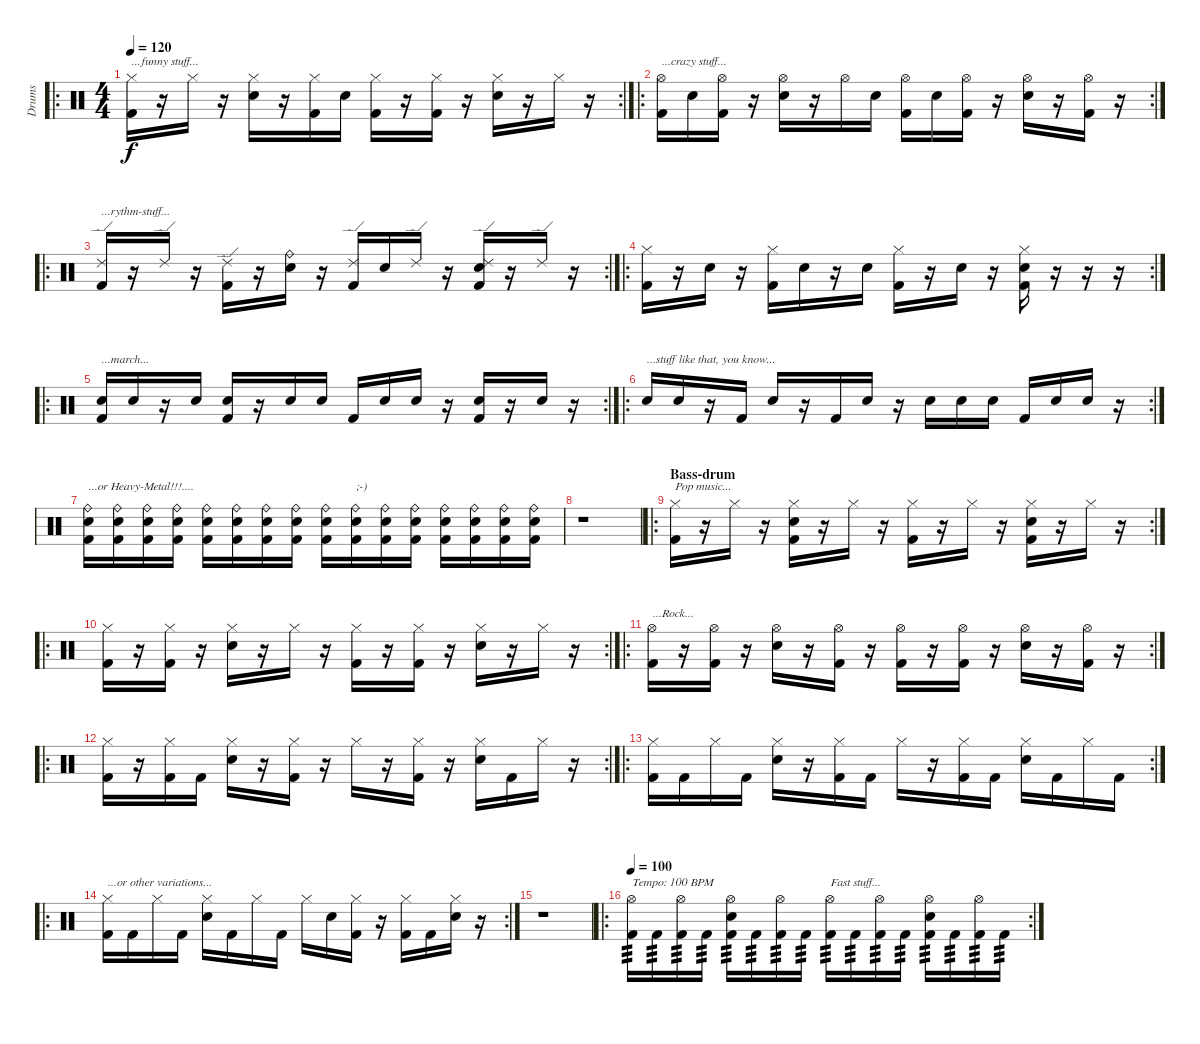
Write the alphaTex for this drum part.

\track ("Drums" "Drums") {instrument percussion}
\staff {score}
\articulation defaults
\ro
\rc 2
\ts (4 4)
\tempo 120
\clef neutral
\ks c
("Hi-Hat (closed)" "Kick (hit) 2").16{txt "...funny stuff..." lyrics (0 "") lyrics (1 "") lyrics (2 "") lyrics (3 "") lyrics (4 "") dy f} r.16 "Hi-Hat (closed)".16{lyrics (0 "") lyrics (1 "") lyrics (2 "") lyrics (3 "") lyrics (4 "")} r.16 ("Hi-Hat (closed)" "Electric Snare (hit)").16{lyrics (0 "") lyrics (1 "") lyrics (2 "") lyrics (3 "") lyrics (4 "")} r.16 ("Hi-Hat (closed)" "Kick (hit) 2").16{lyrics (0 "") lyrics (1 "") lyrics (2 "") lyrics (3 "") lyrics (4 "")} "Electric Snare (hit)".16{lyrics (0 "") lyrics (1 "") lyrics (2 "") lyrics (3 "") lyrics (4 "")} ("Hi-Hat (closed)" "Kick (hit) 2").16{lyrics (0 "") lyrics (1 "") lyrics (2 "") lyrics (3 "") lyrics (4 "")} r.16 ("Hi-Hat (closed)" "Kick (hit) 2").16{lyrics (0 "") lyrics (1 "") lyrics (2 "") lyrics (3 "") lyrics (4 "")} r.16 ("Hi-Hat (closed)" "Electric Snare (hit)").16{lyrics (0 "") lyrics (1 "") lyrics (2 "") lyrics (3 "") lyrics (4 "")} r.16 "Hi-Hat (closed)".16{lyrics (0 "") lyrics (1 "") lyrics (2 "") lyrics (3 "") lyrics (4 "")} r.16 |
\ro
\rc 2
("Hi-Hat (open)" "Kick (hit) 2").16{txt "...crazy stuff..." lyrics (0 "") lyrics (1 "") lyrics (2 "") lyrics (3 "") lyrics (4 "")} "Electric Snare (hit)".16{lyrics (0 "") lyrics (1 "") lyrics (2 "") lyrics (3 "") lyrics (4 "")} ("Hi-Hat (open)" "Kick (hit) 2").16{lyrics (0 "") lyrics (1 "") lyrics (2 "") lyrics (3 "") lyrics (4 "")} r.16 ("Hi-Hat (open)" "Electric Snare (hit)").16{lyrics (0 "") lyrics (1 "") lyrics (2 "") lyrics (3 "") lyrics (4 "")} r.16 "Hi-Hat (open)".16{lyrics (0 "") lyrics (1 "") lyrics (2 "") lyrics (3 "") lyrics (4 "")} "Electric Snare (hit)".16{lyrics (0 "") lyrics (1 "") lyrics (2 "") lyrics (3 "") lyrics (4 "")} ("Hi-Hat (open)" "Kick (hit) 2").16{lyrics (0 "") lyrics (1 "") lyrics (2 "") lyrics (3 "") lyrics (4 "")} "Electric Snare (hit)".16{lyrics (0 "") lyrics (1 "") lyrics (2 "") lyrics (3 "") lyrics (4 "")} ("Hi-Hat (open)" "Kick (hit) 2").16{lyrics (0 "") lyrics (1 "") lyrics (2 "") lyrics (3 "") lyrics (4 "")} r.16 ("Hi-Hat (open)" "Electric Snare (hit)").16{lyrics (0 "") lyrics (1 "") lyrics (2 "") lyrics (3 "") lyrics (4 "")} r.16 ("Hi-Hat (open)" "Kick (hit) 2").16{lyrics (0 "") lyrics (1 "") lyrics (2 "") lyrics (3 "") lyrics (4 "")} r.16 |
\ro
\rc 2
("Ride (edge) 2" "Kick (hit) 2").16{txt "...rythm-stuff..." lyrics (0 "") lyrics (1 "") lyrics (2 "") lyrics (3 "") lyrics (4 "")} r.16 "Ride (edge) 2".16{lyrics (0 "") lyrics (1 "") lyrics (2 "") lyrics (3 "") lyrics (4 "")} r.16 ("Ride (edge) 2" "Kick (hit) 2").16{lyrics (0 "") lyrics (1 "") lyrics (2 "") lyrics (3 "") lyrics (4 "")} r.16 ("Ride (bell)" "Electric Snare (hit)").16{lyrics (0 "") lyrics (1 "") lyrics (2 "") lyrics (3 "") lyrics (4 "")} r.16 ("Ride (edge) 2" "Kick (hit) 2").16{lyrics (0 "") lyrics (1 "") lyrics (2 "") lyrics (3 "") lyrics (4 "")} "Electric Snare (hit)".16{lyrics (0 "") lyrics (1 "") lyrics (2 "") lyrics (3 "") lyrics (4 "")} "Ride (edge) 2".16{lyrics (0 "") lyrics (1 "") lyrics (2 "") lyrics (3 "") lyrics (4 "")} r.16 ("Ride (edge) 2" "Electric Snare (hit)" "Kick (hit) 2").16{lyrics (0 "") lyrics (1 "") lyrics (2 "") lyrics (3 "") lyrics (4 "")} r.16 "Ride (edge) 2".16{lyrics (0 "") lyrics (1 "") lyrics (2 "") lyrics (3 "") lyrics (4 "")} r.16 |
\ro
\rc 2
("Hi-Hat (closed)" "Kick (hit) 2").16{lyrics (0 "") lyrics (1 "") lyrics (2 "") lyrics (3 "") lyrics (4 "")} r.16 "Electric Snare (hit)".16{lyrics (0 "") lyrics (1 "") lyrics (2 "") lyrics (3 "") lyrics (4 "")} r.16 ("Hi-Hat (closed)" "Kick (hit) 2").16{lyrics (0 "") lyrics (1 "") lyrics (2 "") lyrics (3 "") lyrics (4 "")} "Electric Snare (hit)".16{lyrics (0 "") lyrics (1 "") lyrics (2 "") lyrics (3 "") lyrics (4 "")} r.16 "Electric Snare (hit)".16{lyrics (0 "") lyrics (1 "") lyrics (2 "") lyrics (3 "") lyrics (4 "")} ("Hi-Hat (closed)" "Kick (hit) 2").16{lyrics (0 "") lyrics (1 "") lyrics (2 "") lyrics (3 "") lyrics (4 "")} r.16 "Electric Snare (hit)".16{lyrics (0 "") lyrics (1 "") lyrics (2 "") lyrics (3 "") lyrics (4 "")} r.16 ("Hi-Hat (closed)" "Electric Snare (hit)" "Kick (hit) 2").16{lyrics (0 "") lyrics (1 "") lyrics (2 "") lyrics (3 "") lyrics (4 "")} r.16 r.16 r.16 |
\ro
\rc 2
("Electric Snare (hit)" "Kick (hit) 2").16{txt "...march..." lyrics (0 "") lyrics (1 "") lyrics (2 "") lyrics (3 "") lyrics (4 "")} "Electric Snare (hit)".16{lyrics (0 "") lyrics (1 "") lyrics (2 "") lyrics (3 "") lyrics (4 "")} r.16 "Electric Snare (hit)".16{lyrics (0 "") lyrics (1 "") lyrics (2 "") lyrics (3 "") lyrics (4 "")} ("Electric Snare (hit)" "Kick (hit) 2").16{lyrics (0 "") lyrics (1 "") lyrics (2 "") lyrics (3 "") lyrics (4 "")} r.16 "Electric Snare (hit)".16{lyrics (0 "") lyrics (1 "") lyrics (2 "") lyrics (3 "") lyrics (4 "")} "Electric Snare (hit)".16{lyrics (0 "") lyrics (1 "") lyrics (2 "") lyrics (3 "") lyrics (4 "")} "Kick (hit) 2".16{lyrics (0 "") lyrics (1 "") lyrics (2 "") lyrics (3 "") lyrics (4 "")} "Electric Snare (hit)".16{lyrics (0 "") lyrics (1 "") lyrics (2 "") lyrics (3 "") lyrics (4 "")} "Electric Snare (hit)".16{lyrics (0 "") lyrics (1 "") lyrics (2 "") lyrics (3 "") lyrics (4 "")} r.16 ("Electric Snare (hit)" "Kick (hit) 2").16{lyrics (0 "") lyrics (1 "") lyrics (2 "") lyrics (3 "") lyrics (4 "")} r.16 "Electric Snare (hit)".16{lyrics (0 "") lyrics (1 "") lyrics (2 "") lyrics (3 "") lyrics (4 "")} r.16 |
\ro
\rc 2 "Electric Snare (hit)".16{txt "...stuff like that, you know..." lyrics (0 "") lyrics (1 "") lyrics (2 "") lyrics (3 "") lyrics (4 "")} "Electric Snare (hit)".16{lyrics (0 "") lyrics (1 "") lyrics (2 "") lyrics (3 "") lyrics (4 "")}
r.16 "Kick (hit) 2".16{lyrics (0 "") lyrics (1 "") lyrics (2 "") lyrics (3 "") lyrics (4 "")} "Electric Snare (hit)".16{lyrics (0 "") lyrics (1 "") lyrics (2 "") lyrics (3 "") lyrics (4 "")} r.16 "Kick (hit) 2".16{lyrics (0 "") lyrics (1 "") lyrics (2 "") lyrics (3 "") lyrics (4 "")} "Electric Snare (hit)".16{lyrics (0 "") lyrics (1 "") lyrics (2 "") lyrics (3 "") lyrics (4 "")} r.16 "Electric Snare (hit)".16{lyrics (0 "") lyrics (1 "") lyrics (2 "") lyrics (3 "") lyrics (4 "")} "Electric Snare (hit)".16{lyrics (0 "") lyrics (1 "") lyrics (2 "") lyrics (3 "") lyrics (4 "")} "Electric Snare (hit)".16{lyrics (0 "") lyrics (1 "") lyrics (2 "") lyrics (3 "") lyrics (4 "")} "Kick (hit) 2".16{lyrics (0 "") lyrics (1 "") lyrics (2 "") lyrics (3 "") lyrics (4 "")} "Electric Snare (hit)".16{lyrics (0 "") lyrics (1 "") lyrics (2 "") lyrics (3 "") lyrics (4 "")} "Electric Snare (hit)".16{lyrics (0 "") lyrics (1 "") lyrics (2 "") lyrics (3 "") lyrics (4 "")} r.16 |
("Ride (bell)" "Electric Snare (hit)" "Kick (hit) 2").16{txt "...or Heavy-Metal!!!...." lyrics (0 "") lyrics (1 "") lyrics (2 "") lyrics (3 "") lyrics (4 "")} ("Ride (bell)" "Electric Snare (hit)" "Kick (hit) 2").16{lyrics (0 "") lyrics (1 "") lyrics (2 "") lyrics (3 "") lyrics (4 "")} ("Ride (bell)" "Electric Snare (hit)" "Kick (hit) 2").16{lyrics (0 "") lyrics (1 "") lyrics (2 "") lyrics (3 "") lyrics (4 "")} ("Ride (bell)" "Electric Snare (hit)" "Kick (hit) 2").16{lyrics (0 "") lyrics (1 "") lyrics (2 "") lyrics (3 "") lyrics (4 "")} ("Ride (bell)" "Electric Snare (hit)" "Kick (hit) 2").16{lyrics (0 "") lyrics (1 "") lyrics (2 "") lyrics (3 "") lyrics (4 "")} ("Ride (bell)" "Electric Snare (hit)" "Kick (hit) 2").16{lyrics (0 "") lyrics (1 "") lyrics (2 "") lyrics (3 "") lyrics (4 "")} ("Ride (bell)" "Electric Snare (hit)" "Kick (hit) 2").16{lyrics (0 "") lyrics (1 "") lyrics (2 "") lyrics (3 "") lyrics (4 "")} ("Ride (bell)" "Electric Snare (hit)" "Kick (hit) 2").16{lyrics (0 "") lyrics (1 "") lyrics (2 "") lyrics (3 "") lyrics (4 "")} ("Ride (bell)" "Electric Snare (hit)" "Kick (hit) 2").16{lyrics (0 "") lyrics (1 "") lyrics (2 "") lyrics (3 "") lyrics (4 "")} ("Ride (bell)" "Electric Snare (hit)" "Kick (hit) 2").16{txt ";-)" lyrics (0 "") lyrics (1 "") lyrics (2 "") lyrics (3 "") lyrics (4 "")} ("Ride (bell)" "Electric Snare (hit)" "Kick (hit) 2").16{lyrics (0 "") lyrics (1 "") lyrics (2 "") lyrics (3 "") lyrics (4 "")} ("Ride (bell)" "Electric Snare (hit)" "Kick (hit) 2").16{lyrics (0 "") lyrics (1 "") lyrics (2 "") lyrics (3 "") lyrics (4 "")} ("Ride (bell)" "Electric Snare (hit)" "Kick (hit) 2").16{lyrics (0 "") lyrics (1 "") lyrics (2 "") lyrics (3 "") lyrics (4 "")} ("Ride (bell)" "Electric Snare (hit)" "Kick (hit) 2").16{lyrics (0 "") lyrics (1 "") lyrics (2 "") lyrics (3 "") lyrics (4 "")} ("Ride (bell)" "Electric Snare (hit)" "Kick (hit) 2").16{lyrics (0 "") lyrics (1 "") lyrics (2 "") lyrics (3 "") lyrics (4 "")} ("Ride (bell)" "Electric Snare (hit)" "Kick (hit) 2").16{lyrics (0 "") lyrics (1 "") lyrics (2 "") lyrics (3 "") lyrics (4 "")} |
r.1 |
\ro
\rc 2
\section ("" "Bass-drum")
("Hi-Hat (closed)" "Kick (hit) 2").16{txt "Pop music..." lyrics (0 "") lyrics (1 "") lyrics (2 "") lyrics (3 "") lyrics (4 "")} r.16 "Hi-Hat (closed)".16{lyrics (0 "") lyrics (1 "") lyrics (2 "") lyrics (3 "") lyrics (4 "")} r.16 ("Hi-Hat (closed)" "Electric Snare (hit)" "Kick (hit) 2").16{lyrics (0 "") lyrics (1 "") lyrics (2 "") lyrics (3 "") lyrics (4 "")} r.16 "Hi-Hat (closed)".16{lyrics (0 "") lyrics (1 "") lyrics (2 "") lyrics (3 "") lyrics (4 "")} r.16 ("Hi-Hat (closed)" "Kick (hit) 2").16{lyrics (0 "") lyrics (1 "") lyrics (2 "") lyrics (3 "") lyrics (4 "")} r.16 "Hi-Hat (closed)".16{lyrics (0 "") lyrics (1 "") lyrics (2 "") lyrics (3 "") lyrics (4 "")} r.16 ("Hi-Hat (closed)" "Electric Snare (hit)" "Kick (hit) 2").16{lyrics (0 "") lyrics (1 "") lyrics (2 "") lyrics (3 "") lyrics (4 "")} r.16 "Hi-Hat (closed)".16{lyrics (0 "") lyrics (1 "") lyrics (2 "") lyrics (3 "") lyrics (4 "")} r.16 |
\ro
\rc 2
("Hi-Hat (closed)" "Kick (hit) 2").16{lyrics (0 "") lyrics (1 "") lyrics (2 "") lyrics (3 "") lyrics (4 "")} r.16 ("Hi-Hat (closed)" "Kick (hit) 2").16{lyrics (0 "") lyrics (1 "") lyrics (2 "") lyrics (3 "") lyrics (4 "")} r.16 ("Hi-Hat (closed)" "Electric Snare (hit)").16{lyrics (0 "") lyrics (1 "") lyrics (2 "") lyrics (3 "") lyrics (4 "")} r.16 "Hi-Hat (closed)".16{lyrics (0 "") lyrics (1 "") lyrics (2 "") lyrics (3 "") lyrics (4 "")} r.16 ("Hi-Hat (closed)" "Kick (hit) 2").16{lyrics (0 "") lyrics (1 "") lyrics (2 "") lyrics (3 "") lyrics (4 "")} r.16 ("Hi-Hat (closed)" "Kick (hit) 2").16{lyrics (0 "") lyrics (1 "") lyrics (2 "") lyrics (3 "") lyrics (4 "")} r.16 ("Hi-Hat (closed)" "Electric Snare (hit)").16{lyrics (0 "") lyrics (1 "") lyrics (2 "") lyrics (3 "") lyrics (4 "")} r.16 "Hi-Hat (closed)".16{lyrics (0 "") lyrics (1 "") lyrics (2 "") lyrics (3 "") lyrics (4 "")} r.16 |
\ro
\rc 2
("Hi-Hat (open)" "Kick (hit) 2").16{txt "...Rock..." lyrics (0 "") lyrics (1 "") lyrics (2 "") lyrics (3 "") lyrics (4 "")} r.16 ("Hi-Hat (open)" "Kick (hit) 2").16{lyrics (0 "") lyrics (1 "") lyrics (2 "") lyrics (3 "") lyrics (4 "")} r.16 ("Hi-Hat (open)" "Electric Snare (hit)").16{lyrics (0 "") lyrics (1 "") lyrics (2 "") lyrics (3 "") lyrics (4 "")} r.16 ("Hi-Hat (open)" "Kick (hit) 2").16{lyrics (0 "") lyrics (1 "") lyrics (2 "") lyrics (3 "") lyrics (4 "")} r.16 ("Hi-Hat (open)" "Kick (hit) 2").16{lyrics (0 "") lyrics (1 "") lyrics (2 "") lyrics (3 "") lyrics (4 "")} r.16 ("Hi-Hat (open)" "Kick (hit) 2").16{lyrics (0 "") lyrics (1 "") lyrics (2 "") lyrics (3 "") lyrics (4 "")} r.16 ("Hi-Hat (open)" "Electric Snare (hit)").16{lyrics (0 "") lyrics (1 "") lyrics (2 "") lyrics (3 "") lyrics (4 "")} r.16 ("Hi-Hat (open)" "Kick (hit) 2").16{lyrics (0 "") lyrics (1 "") lyrics (2 "") lyrics (3 "") lyrics (4 "")} r.16 |
\ro
\rc 2
("Hi-Hat (closed)" "Kick (hit) 2").16{lyrics (0 "") lyrics (1 "") lyrics (2 "") lyrics (3 "") lyrics (4 "")} r.16 ("Hi-Hat (closed)" "Kick (hit) 2").16{lyrics (0 "") lyrics (1 "") lyrics (2 "") lyrics (3 "") lyrics (4 "")} "Kick (hit) 2".16{lyrics (0 "") lyrics (1 "") lyrics (2 "") lyrics (3 "") lyrics (4 "")} ("Hi-Hat (closed)" "Electric Snare (hit)").16{lyrics (0 "") lyrics (1 "") lyrics (2 "") lyrics (3 "") lyrics (4 "")} r.16 ("Hi-Hat (closed)" "Kick (hit) 2").16{lyrics (0 "") lyrics (1 "") lyrics (2 "") lyrics (3 "") lyrics (4 "")} r.16 "Hi-Hat (closed)".16{lyrics (0 "") lyrics (1 "") lyrics (2 "") lyrics (3 "") lyrics (4 "")} r.16 ("Hi-Hat (closed)" "Kick (hit) 2").16{lyrics (0 "") lyrics (1 "") lyrics (2 "") lyrics (3 "") lyrics (4 "")} r.16 ("Hi-Hat (closed)" "Electric Snare (hit)").16{lyrics (0 "") lyrics (1 "") lyrics (2 "") lyrics (3 "") lyrics (4 "")} "Kick (hit) 2".16{lyrics (0 "") lyrics (1 "") lyrics (2 "") lyrics (3 "") lyrics (4 "")} "Hi-Hat (closed)".16{lyrics (0 "") lyrics (1 "") lyrics (2 "") lyrics (3 "") lyrics (4 "")} r.16 |
\ro
\rc 2
("Hi-Hat (closed)" "Kick (hit) 2").16{lyrics (0 "") lyrics (1 "") lyrics (2 "") lyrics (3 "") lyrics (4 "")} "Kick (hit) 2".16{lyrics (0 "") lyrics (1 "") lyrics (2 "") lyrics (3 "") lyrics (4 "")} "Hi-Hat (closed)".16{lyrics (0 "") lyrics (1 "") lyrics (2 "") lyrics (3 "") lyrics (4 "")} "Kick (hit) 2".16{lyrics (0 "") lyrics (1 "") lyrics (2 "") lyrics (3 "") lyrics (4 "")} ("Hi-Hat (closed)" "Electric Snare (hit)").16{lyrics (0 "") lyrics (1 "") lyrics (2 "") lyrics (3 "") lyrics (4 "")} r.16 ("Hi-Hat (closed)" "Kick (hit) 2").16{lyrics (0 "") lyrics (1 "") lyrics (2 "") lyrics (3 "") lyrics (4 "")} "Kick (hit) 2".16{lyrics (0 "") lyrics (1 "") lyrics (2 "") lyrics (3 "") lyrics (4 "")} "Hi-Hat (closed)".16{lyrics (0 "") lyrics (1 "") lyrics (2 "") lyrics (3 "") lyrics (4 "")} r.16 ("Hi-Hat (closed)" "Kick (hit) 2").16{lyrics (0 "") lyrics (1 "") lyrics (2 "") lyrics (3 "") lyrics (4 "")} "Kick (hit) 2".16{lyrics (0 "") lyrics (1 "") lyrics (2 "") lyrics (3 "") lyrics (4 "")} ("Hi-Hat (closed)" "Electric Snare (hit)").16{lyrics (0 "") lyrics (1 "") lyrics (2 "") lyrics (3 "") lyrics (4 "")} "Kick (hit) 2".16{lyrics (0 "") lyrics (1 "") lyrics (2 "") lyrics (3 "") lyrics (4 "")} "Hi-Hat (closed)".16{lyrics (0 "") lyrics (1 "") lyrics (2 "") lyrics (3 "") lyrics (4 "")} "Kick (hit) 2".16{lyrics (0 "") lyrics (1 "") lyrics (2 "") lyrics (3 "") lyrics (4 "")} |
\ro
\rc 2
("Hi-Hat (closed)" "Kick (hit) 2").16{txt "...or other variations..." lyrics (0 "") lyrics (1 "") lyrics (2 "") lyrics (3 "") lyrics (4 "")} "Kick (hit) 2".16{lyrics (0 "") lyrics (1 "") lyrics (2 "") lyrics (3 "") lyrics (4 "")} "Hi-Hat (closed)".16{lyrics (0 "") lyrics (1 "") lyrics (2 "") lyrics (3 "") lyrics (4 "")} "Kick (hit) 2".16{lyrics (0 "") lyrics (1 "") lyrics (2 "") lyrics (3 "") lyrics (4 "")} ("Hi-Hat (closed)" "Electric Snare (hit)").16{lyrics (0 "") lyrics (1 "") lyrics (2 "") lyrics (3 "") lyrics (4 "")} "Kick (hit) 2".16{lyrics (0 "") lyrics (1 "") lyrics (2 "") lyrics (3 "") lyrics (4 "")} "Hi-Hat (closed)".16{lyrics (0 "") lyrics (1 "") lyrics (2 "") lyrics (3 "") lyrics (4 "")} "Kick (hit) 2".16{lyrics (0 "") lyrics (1 "") lyrics (2 "") lyrics (3 "") lyrics (4 "")} "Hi-Hat (closed)".16{lyrics (0 "") lyrics (1 "") lyrics (2 "") lyrics (3 "") lyrics (4 "")} "Electric Snare (hit)".16{lyrics (0 "") lyrics (1 "") lyrics (2 "") lyrics (3 "") lyrics (4 "")} ("Hi-Hat (closed)" "Kick (hit) 2").16{lyrics (0 "") lyrics (1 "") lyrics (2 "") lyrics (3 "") lyrics (4 "")} r.16 ("Hi-Hat (closed)" "Kick (hit) 2").16{lyrics (0 "") lyrics (1 "") lyrics (2 "") lyrics (3 "") lyrics (4 "")} "Kick (hit) 2".16{lyrics (0 "") lyrics (1 "") lyrics (2 "") lyrics (3 "") lyrics (4 "")} ("Hi-Hat (closed)" "Electric Snare (hit)").16{lyrics (0 "") lyrics (1 "") lyrics (2 "") lyrics (3 "") lyrics (4 "")} r.16 |
r.1 |
\ro
\rc 2
\section ("" "")
\tempo 100
("Hi-Hat (open)" "Kick (hit) 2").16{txt "Tempo: 100 BPM" lyrics (0 "") lyrics (1 "") lyrics (2 "") lyrics (3 "") lyrics (4 "") tp 3} "Kick (hit) 2".16{lyrics (0 "") lyrics (1 "") lyrics (2 "") lyrics (3 "") lyrics (4 "") tp 3} ("Hi-Hat (open)" "Kick (hit) 2").16{lyrics (0 "") lyrics (1 "") lyrics (2 "") lyrics (3 "") lyrics (4 "") tp 3} "Kick (hit) 2".16{lyrics (0 "") lyrics (1 "") lyrics (2 "") lyrics (3 "") lyrics (4 "") tp 3} ("Hi-Hat (open)" "Electric Snare (hit)" "Kick (hit) 2").16{lyrics (0 "") lyrics (1 "") lyrics (2 "") lyrics (3 "") lyrics (4 "") tp 3} "Kick (hit) 2".16{lyrics (0 "") lyrics (1 "") lyrics (2 "") lyrics (3 "") lyrics (4 "") tp 3} ("Hi-Hat (open)" "Kick (hit) 2").16{lyrics (0 "") lyrics (1 "") lyrics (2 "") lyrics (3 "") lyrics (4 "") tp 3} "Kick (hit) 2".16{lyrics (0 "") lyrics (1 "") lyrics (2 "") lyrics (3 "") lyrics (4 "") tp 3} ("Hi-Hat (open)" "Kick (hit) 2").16{txt "Fast stuff..." lyrics (0 "") lyrics (1 "") lyrics (2 "") lyrics (3 "") lyrics (4 "") tp 3} "Kick (hit) 2".16{lyrics (0 "") lyrics (1 "") lyrics (2 "") lyrics (3 "") lyrics (4 "") tp 3} ("Hi-Hat (open)" "Kick (hit) 2").16{lyrics (0 "") lyrics (1 "") lyrics (2 "") lyrics (3 "") lyrics (4 "") tp 3} "Kick (hit) 2".16{lyrics (0 "") lyrics (1 "") lyrics (2 "") lyrics (3 "") lyrics (4 "") tp 3} ("Hi-Hat (open)" "Electric Snare (hit)" "Kick (hit) 2").16{lyrics (0 "") lyrics (1 "") lyrics (2 "") lyrics (3 "") lyrics (4 "") tp 3} "Kick (hit) 2".16{lyrics (0 "") lyrics (1 "") lyrics (2 "") lyrics (3 "") lyrics (4 "") tp 3} ("Hi-Hat (open)" "Kick (hit) 2").16{lyrics (0 "") lyrics (1 "") lyrics (2 "") lyrics (3 "") lyrics (4 "") tp 3} "Kick (hit) 2".16{lyrics (0 "") lyrics (1 "") lyrics (2 "") lyrics (3 "") lyrics (4 "") tp 3}
